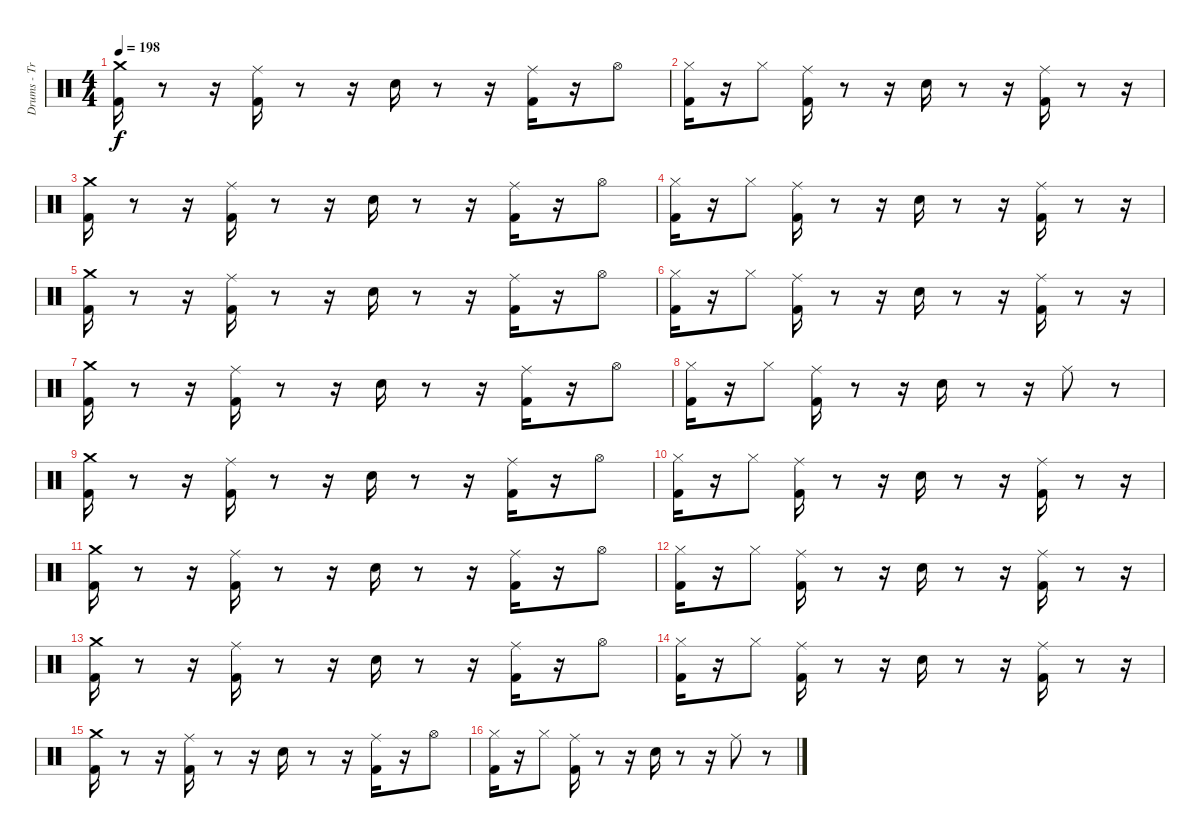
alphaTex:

\track ("Drums - Travis" "Drums - Tr") {instrument percussion}
\staff {score}
\articulation defaults
\ts (4 4)
\tempo 198
\clef neutral
\ks c
("Crash medium (hit)" "Kick (hit) 2").16{dy f} r.8 r.16 ("Ride (middle)" "Kick (hit) 2").16 r.8 r.16 "Electric Snare (hit)".16 r.8 r.16 ("Ride (middle)" "Kick (hit) 2").16 r.16 "Hi-Hat (open)".8 |
("Kick (hit) 2" "Hi-Hat (closed)").16 r.16 "Hi-Hat (closed)".8 ("Ride (middle)" "Kick (hit) 2").16 r.8 r.16 "Electric Snare (hit)".16 r.8 r.16 ("Ride (middle)" "Kick (hit) 2").16 r.8 r.16 |
("Crash medium (hit)" "Kick (hit) 2").16 r.8 r.16 ("Ride (middle)" "Kick (hit) 2").16 r.8 r.16 "Electric Snare (hit)".16 r.8 r.16 ("Ride (middle)" "Kick (hit) 2").16 r.16 "Hi-Hat (open)".8 |
("Kick (hit) 2" "Hi-Hat (closed)").16 r.16 "Hi-Hat (closed)".8 ("Ride (middle)" "Kick (hit) 2").16 r.8 r.16 "Electric Snare (hit)".16 r.8 r.16 ("Ride (middle)" "Kick (hit) 2").16 r.8 r.16 |
("Crash medium (hit)" "Kick (hit) 2").16 r.8 r.16 ("Ride (middle)" "Kick (hit) 2").16 r.8 r.16 "Electric Snare (hit)".16 r.8 r.16 ("Ride (middle)" "Kick (hit) 2").16 r.16 "Hi-Hat (open)".8 |
("Kick (hit) 2" "Hi-Hat (closed)").16 r.16 "Hi-Hat (closed)".8 ("Ride (middle)" "Kick (hit) 2").16 r.8 r.16 "Electric Snare (hit)".16 r.8 r.16 ("Ride (middle)" "Kick (hit) 2").16 r.8 r.16 |
("Crash medium (hit)" "Kick (hit) 2").16 r.8 r.16 ("Ride (middle)" "Kick (hit) 2").16 r.8 r.16 "Electric Snare (hit)".16 r.8 r.16 ("Ride (middle)" "Kick (hit) 2").16 r.16 "Hi-Hat (open)".8 |
("Kick (hit) 2" "Hi-Hat (closed)").16 r.16 "Hi-Hat (closed)".8 ("Ride (middle)" "Kick (hit) 2").16 r.8 r.16 "Electric Snare (hit)".16 r.8 r.16 "Ride (middle)".8 r.8 |
("Crash medium (hit)" "Kick (hit) 2").16 r.8 r.16 ("Ride (middle)" "Kick (hit) 2").16 r.8 r.16 "Electric Snare (hit)".16 r.8 r.16 ("Ride (middle)" "Kick (hit) 2").16 r.16 "Hi-Hat (open)".8 |
("Kick (hit) 2" "Hi-Hat (closed)").16 r.16 "Hi-Hat (closed)".8 ("Ride (middle)" "Kick (hit) 2").16 r.8 r.16 "Electric Snare (hit)".16 r.8 r.16 ("Ride (middle)" "Kick (hit) 2").16 r.8 r.16 |
("Crash medium (hit)" "Kick (hit) 2").16 r.8 r.16 ("Ride (middle)" "Kick (hit) 2").16 r.8 r.16 "Electric Snare (hit)".16 r.8 r.16 ("Ride (middle)" "Kick (hit) 2").16 r.16 "Hi-Hat (open)".8 |
("Kick (hit) 2" "Hi-Hat (closed)").16 r.16 "Hi-Hat (closed)".8 ("Ride (middle)" "Kick (hit) 2").16 r.8 r.16 "Electric Snare (hit)".16 r.8 r.16 ("Ride (middle)" "Kick (hit) 2").16 r.8 r.16 |
("Crash medium (hit)" "Kick (hit) 2").16 r.8 r.16 ("Ride (middle)" "Kick (hit) 2").16 r.8 r.16 "Electric Snare (hit)".16 r.8 r.16 ("Ride (middle)" "Kick (hit) 2").16 r.16 "Hi-Hat (open)".8 |
("Kick (hit) 2" "Hi-Hat (closed)").16 r.16 "Hi-Hat (closed)".8 ("Ride (middle)" "Kick (hit) 2").16 r.8 r.16 "Electric Snare (hit)".16 r.8 r.16 ("Ride (middle)" "Kick (hit) 2").16 r.8 r.16 |
("Crash medium (hit)" "Kick (hit) 2").16 r.8 r.16 ("Ride (middle)" "Kick (hit) 2").16 r.8 r.16 "Electric Snare (hit)".16 r.8 r.16 ("Ride (middle)" "Kick (hit) 2").16 r.16 "Hi-Hat (open)".8 |
("Kick (hit) 2" "Hi-Hat (closed)").16 r.16 "Hi-Hat (closed)".8 ("Ride (middle)" "Kick (hit) 2").16 r.8 r.16 "Electric Snare (hit)".16 r.8 r.16 "Ride (middle)".8 r.8
